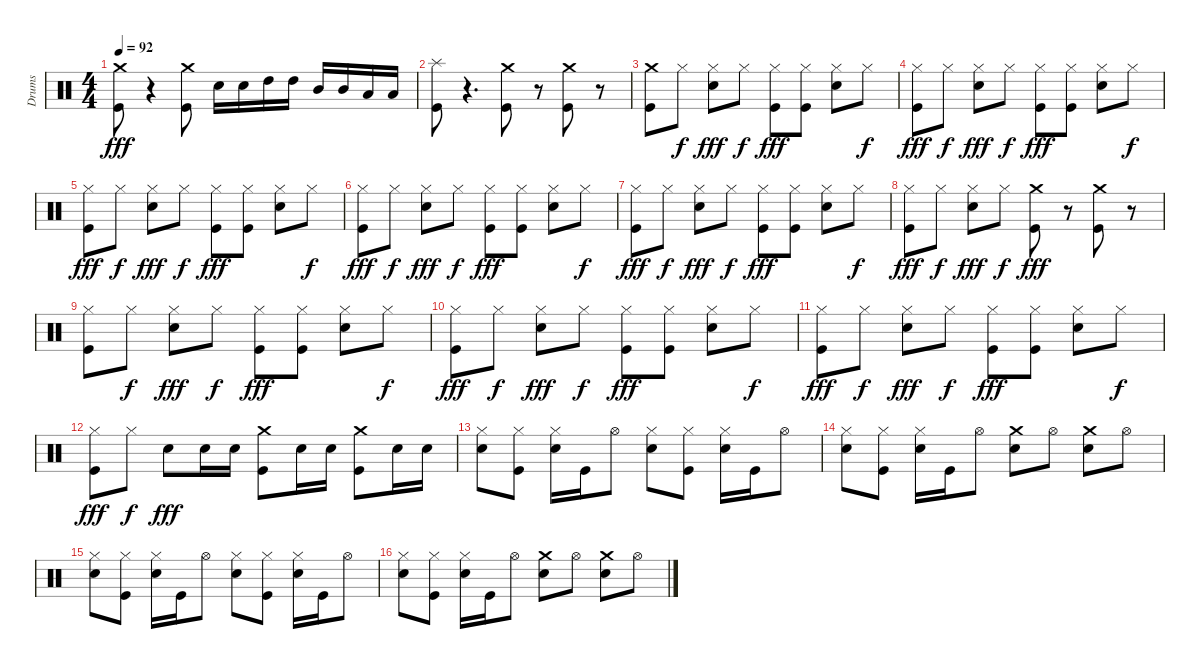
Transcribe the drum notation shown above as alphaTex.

\track ("Drums" "Drums") {instrument percussion}
\staff {score}
\articulation defaults
\ts (4 4)
\tempo 92
\clef neutral
\ks c
("Crash medium (hit)" "Kick (hit)").8{dy fff} r.4 ("Crash medium (hit)" "Kick (hit)").8 "Snare (hit) 2".16 "Snare (hit) 2".16 "High Tom (hit)".16 "High Tom (hit)".16 "Mid Tom (hit)".16 "Mid Tom (hit)".16 "Low Tom (hit)".16 "Low Tom (hit)".16 |
("Splash (hit)" "Kick (hit)").8 r.4{d} ("Crash medium (hit)" "Kick (hit)").8 r.8 ("Crash medium (hit)" "Kick (hit)").8 r.8 |
("Crash medium (hit)" "Kick (hit)").8 "Hi-Hat (closed)".8{dy f} ("Hi-Hat (closed)" "Snare (hit) 2").8{dy fff} "Hi-Hat (closed)".8{dy f} ("Hi-Hat (closed)" "Kick (hit)").8{dy fff} ("Hi-Hat (closed)" "Kick (hit)").8 ("Hi-Hat (closed)" "Snare (hit) 2").8 "Hi-Hat (closed)".8{dy f} |
("Hi-Hat (closed)" "Kick (hit)").8{dy fff} "Hi-Hat (closed)".8{dy f} ("Hi-Hat (closed)" "Snare (hit) 2").8{dy fff} "Hi-Hat (closed)".8{dy f} ("Hi-Hat (closed)" "Kick (hit)").8{dy fff} ("Hi-Hat (closed)" "Kick (hit)").8 ("Hi-Hat (closed)" "Snare (hit) 2").8 "Hi-Hat (closed)".8{dy f} |
("Hi-Hat (closed)" "Kick (hit)").8{dy fff} "Hi-Hat (closed)".8{dy f} ("Hi-Hat (closed)" "Snare (hit) 2").8{dy fff} "Hi-Hat (closed)".8{dy f} ("Hi-Hat (closed)" "Kick (hit)").8{dy fff} ("Hi-Hat (closed)" "Kick (hit)").8 ("Hi-Hat (closed)" "Snare (hit) 2").8 "Hi-Hat (closed)".8{dy f} |
("Hi-Hat (closed)" "Kick (hit)").8{dy fff} "Hi-Hat (closed)".8{dy f} ("Hi-Hat (closed)" "Snare (hit) 2").8{dy fff} "Hi-Hat (closed)".8{dy f} ("Hi-Hat (closed)" "Kick (hit)").8{dy fff} ("Hi-Hat (closed)" "Kick (hit)").8 ("Hi-Hat (closed)" "Snare (hit) 2").8 "Hi-Hat (closed)".8{dy f} |
("Hi-Hat (closed)" "Kick (hit)").8{dy fff} "Hi-Hat (closed)".8{dy f} ("Hi-Hat (closed)" "Snare (hit) 2").8{dy fff} "Hi-Hat (closed)".8{dy f} ("Hi-Hat (closed)" "Kick (hit)").8{dy fff} ("Hi-Hat (closed)" "Kick (hit)").8 ("Hi-Hat (closed)" "Snare (hit) 2").8 "Hi-Hat (closed)".8{dy f} |
("Hi-Hat (closed)" "Kick (hit)").8{dy fff} "Hi-Hat (closed)".8{dy f} ("Hi-Hat (closed)" "Snare (hit) 2").8{dy fff} "Hi-Hat (closed)".8{dy f} ("Crash medium (hit)" "Kick (hit)").8{dy fff} r.8 ("Crash medium (hit)" "Kick (hit)").8 r.8 |
("Hi-Hat (closed)" "Kick (hit)").8 "Hi-Hat (closed)".8{dy f} ("Hi-Hat (closed)" "Snare (hit) 2").8{dy fff} "Hi-Hat (closed)".8{dy f} ("Hi-Hat (closed)" "Kick (hit)").8{dy fff} ("Hi-Hat (closed)" "Kick (hit)").8 ("Hi-Hat (closed)" "Snare (hit) 2").8 "Hi-Hat (closed)".8{dy f} |
("Hi-Hat (closed)" "Kick (hit)").8{dy fff} "Hi-Hat (closed)".8{dy f} ("Hi-Hat (closed)" "Snare (hit) 2").8{dy fff} "Hi-Hat (closed)".8{dy f} ("Hi-Hat (closed)" "Kick (hit)").8{dy fff} ("Hi-Hat (closed)" "Kick (hit)").8 ("Hi-Hat (closed)" "Snare (hit) 2").8 "Hi-Hat (closed)".8{dy f} |
("Hi-Hat (closed)" "Kick (hit)").8{dy fff} "Hi-Hat (closed)".8{dy f} ("Hi-Hat (closed)" "Snare (hit) 2").8{dy fff} "Hi-Hat (closed)".8{dy f} ("Hi-Hat (closed)" "Kick (hit)").8{dy fff} ("Hi-Hat (closed)" "Kick (hit)").8 ("Hi-Hat (closed)" "Snare (hit) 2").8 "Hi-Hat (closed)".8{dy f} |
("Hi-Hat (closed)" "Kick (hit)").8{dy fff} "Hi-Hat (closed)".8{dy f} "Snare (hit) 2".8{dy fff} "Snare (hit) 2".16 "Snare (hit) 2".16 ("Crash medium (hit)" "Kick (hit)").8 "Snare (hit) 2".16 "Snare (hit) 2".16 ("Crash medium (hit)" "Kick (hit)").8 "Snare (hit) 2".16 "Snare (hit) 2".16 |
("Hi-Hat (closed)" "Snare (hit) 2").8 ("Hi-Hat (closed)" "Kick (hit)").8 ("Hi-Hat (closed)" "Snare (hit) 2").16 "Kick (hit)".16 "Hi-Hat (open)".8 ("Hi-Hat (closed)" "Snare (hit) 2").8 ("Hi-Hat (closed)" "Kick (hit)").8 ("Hi-Hat (closed)" "Snare (hit) 2").16 "Kick (hit)".16 "Hi-Hat (open)".8 |
("Hi-Hat (closed)" "Snare (hit) 2").8 ("Hi-Hat (closed)" "Kick (hit)").8 ("Hi-Hat (closed)" "Snare (hit) 2").16 "Kick (hit)".16 "Hi-Hat (open)".8 ("Snare (hit) 2" "Crash medium (hit)").8 "Hi-Hat (open)".8 ("Snare (hit) 2" "Crash medium (hit)").8 "Hi-Hat (open)".8 |
("Hi-Hat (closed)" "Snare (hit) 2").8 ("Hi-Hat (closed)" "Kick (hit)").8 ("Hi-Hat (closed)" "Snare (hit) 2").16 "Kick (hit)".16 "Hi-Hat (open)".8 ("Hi-Hat (closed)" "Snare (hit) 2").8 ("Hi-Hat (closed)" "Kick (hit)").8 ("Hi-Hat (closed)" "Snare (hit) 2").16 "Kick (hit)".16 "Hi-Hat (open)".8 |
("Hi-Hat (closed)" "Snare (hit) 2").8 ("Hi-Hat (closed)" "Kick (hit)").8 ("Hi-Hat (closed)" "Snare (hit) 2").16 "Kick (hit)".16 "Hi-Hat (open)".8 ("Snare (hit) 2" "Crash medium (hit)").8 "Hi-Hat (open)".8 ("Snare (hit) 2" "Crash medium (hit)").8 "Hi-Hat (open)".8
